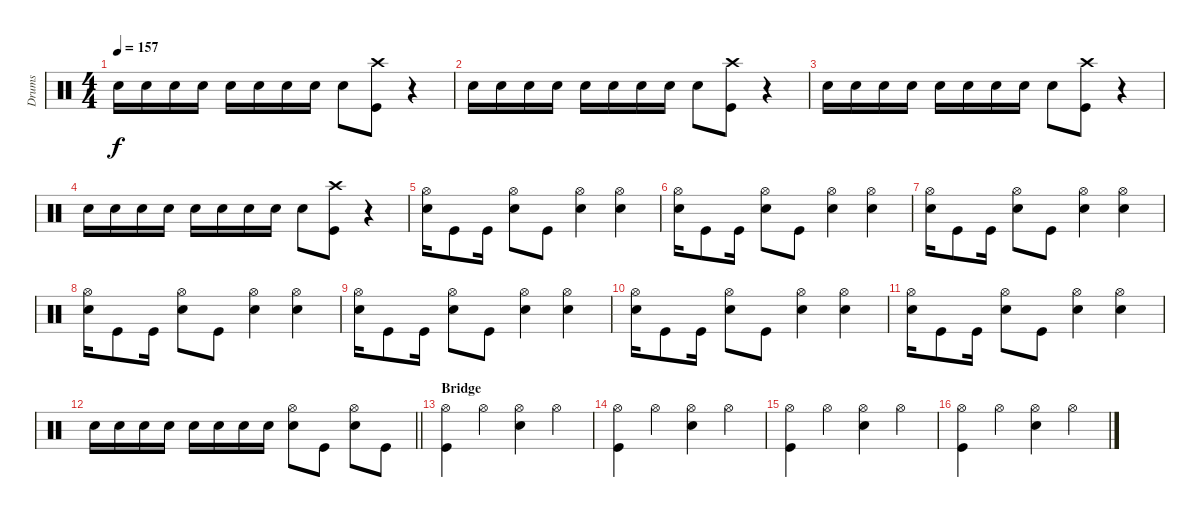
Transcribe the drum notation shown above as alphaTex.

\track ("Drums" "Drums") {instrument percussion}
\staff {score}
\articulation defaults
\ts (4 4)
\tempo 157
\clef neutral
\ks c "Snare (hit) 2".16{dy f} "Snare (hit) 2".16 "Snare (hit) 2".16 "Snare (hit) 2".16 "Snare (hit) 2".16 "Snare (hit) 2".16 "Snare (hit) 2".16 "Snare (hit) 2".16 "Snare (hit) 2".8
("Crash high (hit)" "Kick (hit)").8 r.4 |
"Snare (hit) 2".16 "Snare (hit) 2".16 "Snare (hit) 2".16 "Snare (hit) 2".16 "Snare (hit) 2".16 "Snare (hit) 2".16 "Snare (hit) 2".16 "Snare (hit) 2".16 "Snare (hit) 2".8 ("Crash high (hit)" "Kick (hit)").8 r.4 |
"Snare (hit) 2".16 "Snare (hit) 2".16 "Snare (hit) 2".16 "Snare (hit) 2".16 "Snare (hit) 2".16 "Snare (hit) 2".16 "Snare (hit) 2".16 "Snare (hit) 2".16 "Snare (hit) 2".8 ("Crash high (hit)" "Kick (hit)").8 r.4 |
"Snare (hit) 2".16 "Snare (hit) 2".16 "Snare (hit) 2".16 "Snare (hit) 2".16 "Snare (hit) 2".16 "Snare (hit) 2".16 "Snare (hit) 2".16 "Snare (hit) 2".16 "Snare (hit) 2".8 ("Crash high (hit)" "Kick (hit)").8 r.4 |
("Hi-Hat (open)" "Snare (hit) 2").16 "Kick (hit)".8 "Kick (hit)".16 ("Hi-Hat (open)" "Snare (hit) 2").8 "Kick (hit)".8 ("Hi-Hat (open)" "Snare (hit) 2").4 ("Hi-Hat (open)" "Snare (hit) 2").4 |
("Hi-Hat (open)" "Snare (hit) 2").16 "Kick (hit)".8 "Kick (hit)".16 ("Hi-Hat (open)" "Snare (hit) 2").8 "Kick (hit)".8 ("Hi-Hat (open)" "Snare (hit) 2").4 ("Hi-Hat (open)" "Snare (hit) 2").4 |
("Hi-Hat (open)" "Snare (hit) 2").16 "Kick (hit)".8 "Kick (hit)".16 ("Hi-Hat (open)" "Snare (hit) 2").8 "Kick (hit)".8 ("Hi-Hat (open)" "Snare (hit) 2").4 ("Hi-Hat (open)" "Snare (hit) 2").4 |
("Hi-Hat (open)" "Snare (hit) 2").16 "Kick (hit)".8 "Kick (hit)".16 ("Hi-Hat (open)" "Snare (hit) 2").8 "Kick (hit)".8 ("Hi-Hat (open)" "Snare (hit) 2").4 ("Hi-Hat (open)" "Snare (hit) 2").4 |
("Hi-Hat (open)" "Snare (hit) 2").16 "Kick (hit)".8 "Kick (hit)".16 ("Hi-Hat (open)" "Snare (hit) 2").8 "Kick (hit)".8 ("Hi-Hat (open)" "Snare (hit) 2").4 ("Hi-Hat (open)" "Snare (hit) 2").4 |
("Hi-Hat (open)" "Snare (hit) 2").16 "Kick (hit)".8 "Kick (hit)".16 ("Hi-Hat (open)" "Snare (hit) 2").8 "Kick (hit)".8 ("Hi-Hat (open)" "Snare (hit) 2").4 ("Hi-Hat (open)" "Snare (hit) 2").4 |
("Hi-Hat (open)" "Snare (hit) 2").16 "Kick (hit)".8 "Kick (hit)".16 ("Hi-Hat (open)" "Snare (hit) 2").8 "Kick (hit)".8 ("Hi-Hat (open)" "Snare (hit) 2").4 ("Hi-Hat (open)" "Snare (hit) 2").4 |
\barLineRight lightlight "Snare (hit) 2".16 "Snare (hit) 2".16 "Snare (hit) 2".16 "Snare (hit) 2".16 "Snare (hit) 2".16 "Snare (hit) 2".16 "Snare (hit) 2".16 "Snare (hit) 2".16
("Hi-Hat (open)" "Snare (hit) 2").8 "Kick (hit)".8 ("Hi-Hat (open)" "Snare (hit) 2").8 "Kick (hit)".8 |
\section ("" "Bridge")
("Hi-Hat (open)" "Kick (hit)").4 "Hi-Hat (open)".4 ("Hi-Hat (open)" "Snare (hit) 2").4 "Hi-Hat (open)".4 |
("Hi-Hat (open)" "Kick (hit)").4 "Hi-Hat (open)".4 ("Hi-Hat (open)" "Snare (hit) 2").4 "Hi-Hat (open)".4 |
("Hi-Hat (open)" "Kick (hit)").4 "Hi-Hat (open)".4 ("Hi-Hat (open)" "Snare (hit) 2").4 "Hi-Hat (open)".4 |
("Hi-Hat (open)" "Kick (hit)").4 "Hi-Hat (open)".4 ("Hi-Hat (open)" "Snare (hit) 2").4 "Hi-Hat (open)".4
